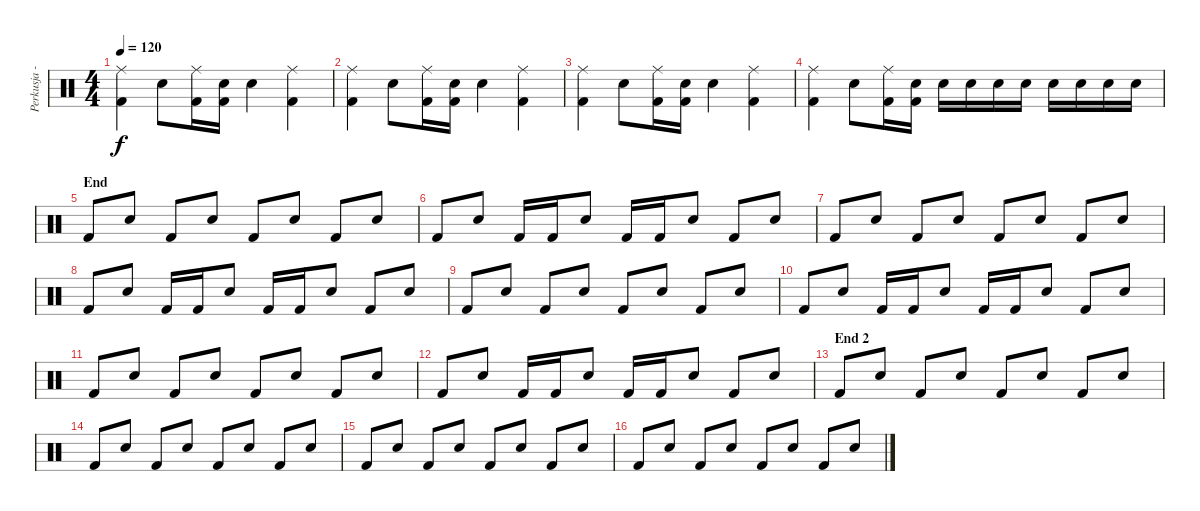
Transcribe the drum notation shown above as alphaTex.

\track ("Perkusja - Mielony" "Perkusja -") {instrument percussion}
\staff {score}
\articulation defaults
\ts (4 4)
\tempo 120
\clef neutral
\ks c
("Ride (middle)" "Kick (hit) 2").4{dy f} "Snare (hit) 2".8 ("Ride (middle)" "Kick (hit) 2").16 ("Snare (hit) 2" "Kick (hit) 2").16 "Snare (hit) 2".4 ("Ride (middle)" "Kick (hit) 2").4 |
("Ride (middle)" "Kick (hit) 2").4 "Snare (hit) 2".8 ("Ride (middle)" "Kick (hit) 2").16 ("Snare (hit) 2" "Kick (hit) 2").16 "Snare (hit) 2".4 ("Ride (middle)" "Kick (hit) 2").4 |
("Ride (middle)" "Kick (hit) 2").4 "Snare (hit) 2".8 ("Ride (middle)" "Kick (hit) 2").16 ("Snare (hit) 2" "Kick (hit) 2").16 "Snare (hit) 2".4 ("Ride (middle)" "Kick (hit) 2").4 |
("Ride (middle)" "Kick (hit) 2").4 "Snare (hit) 2".8 ("Ride (middle)" "Kick (hit) 2").16 ("Snare (hit) 2" "Kick (hit) 2").16 "Snare (hit) 2".16 "Snare (hit) 2".16 "Snare (hit) 2".16 "Snare (hit) 2".16 "Snare (hit) 2".16 "Snare (hit) 2".16 "Snare (hit) 2".16 "Snare (hit) 2".16 |
\section ("" "End")
"Kick (hit) 2".8 "Snare (hit) 2".8 "Kick (hit) 2".8 "Snare (hit) 2".8 "Kick (hit) 2".8 "Snare (hit) 2".8 "Kick (hit) 2".8 "Snare (hit) 2".8 |
"Kick (hit) 2".8 "Snare (hit) 2".8 "Kick (hit) 2".16 "Kick (hit) 2".16 "Snare (hit) 2".8 "Kick (hit) 2".16 "Kick (hit) 2".16 "Snare (hit) 2".8 "Kick (hit) 2".8 "Snare (hit) 2".8 |
"Kick (hit) 2".8 "Snare (hit) 2".8 "Kick (hit) 2".8 "Snare (hit) 2".8 "Kick (hit) 2".8 "Snare (hit) 2".8 "Kick (hit) 2".8 "Snare (hit) 2".8 |
"Kick (hit) 2".8 "Snare (hit) 2".8 "Kick (hit) 2".16 "Kick (hit) 2".16 "Snare (hit) 2".8 "Kick (hit) 2".16 "Kick (hit) 2".16 "Snare (hit) 2".8 "Kick (hit) 2".8 "Snare (hit) 2".8 |
"Kick (hit) 2".8 "Snare (hit) 2".8 "Kick (hit) 2".8 "Snare (hit) 2".8 "Kick (hit) 2".8 "Snare (hit) 2".8 "Kick (hit) 2".8 "Snare (hit) 2".8 |
"Kick (hit) 2".8 "Snare (hit) 2".8 "Kick (hit) 2".16 "Kick (hit) 2".16 "Snare (hit) 2".8 "Kick (hit) 2".16 "Kick (hit) 2".16 "Snare (hit) 2".8 "Kick (hit) 2".8 "Snare (hit) 2".8 |
"Kick (hit) 2".8 "Snare (hit) 2".8 "Kick (hit) 2".8 "Snare (hit) 2".8 "Kick (hit) 2".8 "Snare (hit) 2".8 "Kick (hit) 2".8 "Snare (hit) 2".8 |
"Kick (hit) 2".8 "Snare (hit) 2".8 "Kick (hit) 2".16 "Kick (hit) 2".16 "Snare (hit) 2".8 "Kick (hit) 2".16 "Kick (hit) 2".16 "Snare (hit) 2".8 "Kick (hit) 2".8 "Snare (hit) 2".8 |
\section ("" "End 2")
"Kick (hit) 2".8 "Snare (hit) 2".8 "Kick (hit) 2".8 "Snare (hit) 2".8 "Kick (hit) 2".8 "Snare (hit) 2".8 "Kick (hit) 2".8 "Snare (hit) 2".8 |
"Kick (hit) 2".8 "Snare (hit) 2".8 "Kick (hit) 2".8 "Snare (hit) 2".8 "Kick (hit) 2".8 "Snare (hit) 2".8 "Kick (hit) 2".8 "Snare (hit) 2".8 |
"Kick (hit) 2".8 "Snare (hit) 2".8 "Kick (hit) 2".8 "Snare (hit) 2".8 "Kick (hit) 2".8 "Snare (hit) 2".8 "Kick (hit) 2".8 "Snare (hit) 2".8 |
"Kick (hit) 2".8 "Snare (hit) 2".8 "Kick (hit) 2".8 "Snare (hit) 2".8 "Kick (hit) 2".8 "Snare (hit) 2".8 "Kick (hit) 2".8 "Snare (hit) 2".8
